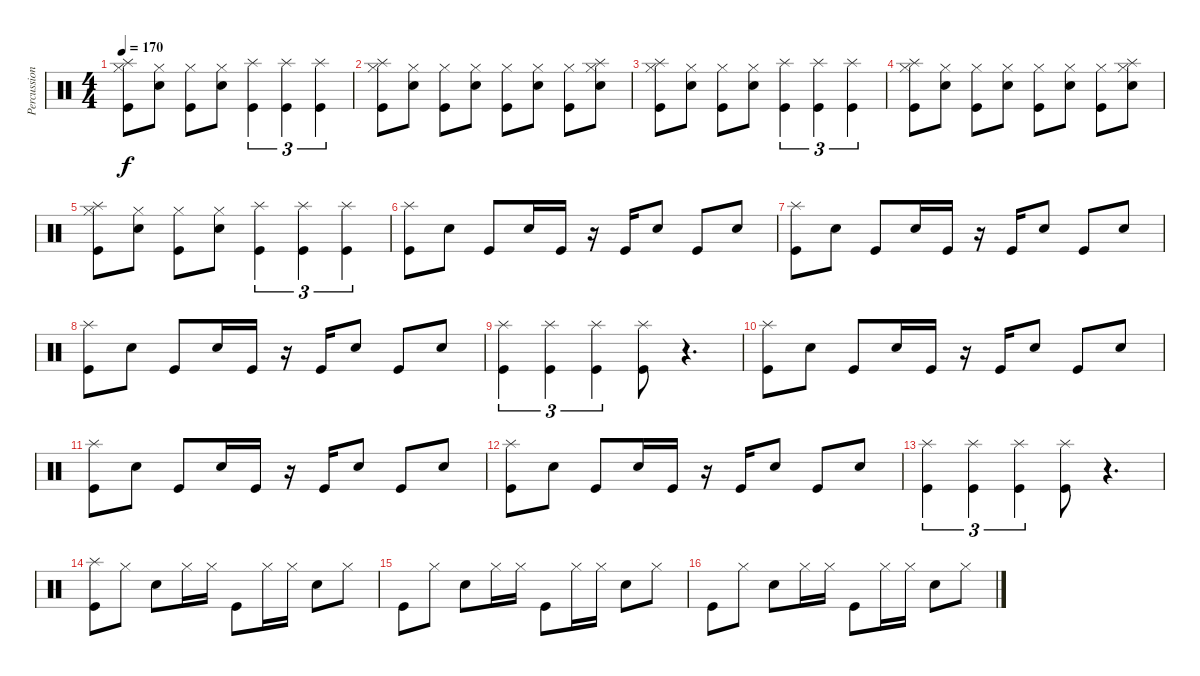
\track ("Percussion" "Percussion") {instrument percussion}
\staff {score}
\articulation defaults
\ts (4 4)
\tempo 170
\clef neutral
\ks c
("Splash (hit)" "Hi-Hat (closed)" "Kick (hit)").8{dy f} ("Hi-Hat (closed)" "Electric Snare (hit)").8 ("Hi-Hat (closed)" "Kick (hit)").8 ("Hi-Hat (closed)" "Electric Snare (hit)").8 ("Splash (hit)" "Kick (hit)").4{tu (3 2)} ("Splash (hit)" "Kick (hit)").4{tu (3 2)} ("Splash (hit)" "Kick (hit)").4{tu (3 2)} |
("Splash (hit)" "Hi-Hat (closed)" "Kick (hit)").8 ("Hi-Hat (closed)" "Electric Snare (hit)").8 ("Hi-Hat (closed)" "Kick (hit)").8 ("Hi-Hat (closed)" "Electric Snare (hit)").8 ("Hi-Hat (closed)" "Kick (hit)").8 ("Hi-Hat (closed)" "Electric Snare (hit)").8 ("Hi-Hat (closed)" "Kick (hit)").8 ("Splash (hit)" "Hi-Hat (closed)" "Electric Snare (hit)").8 |
("Splash (hit)" "Hi-Hat (closed)" "Kick (hit)").8 ("Hi-Hat (closed)" "Electric Snare (hit)").8 ("Hi-Hat (closed)" "Kick (hit)").8 ("Hi-Hat (closed)" "Electric Snare (hit)").8 ("Splash (hit)" "Kick (hit)").4{tu (3 2)} ("Splash (hit)" "Kick (hit)").4{tu (3 2)} ("Splash (hit)" "Kick (hit)").4{tu (3 2)} |
("Splash (hit)" "Hi-Hat (closed)" "Kick (hit)").8 ("Hi-Hat (closed)" "Electric Snare (hit)").8 ("Hi-Hat (closed)" "Kick (hit)").8 ("Hi-Hat (closed)" "Electric Snare (hit)").8 ("Hi-Hat (closed)" "Kick (hit)").8 ("Hi-Hat (closed)" "Electric Snare (hit)").8 ("Hi-Hat (closed)" "Kick (hit)").8 ("Splash (hit)" "Hi-Hat (closed)" "Electric Snare (hit)").8 |
("Splash (hit)" "Hi-Hat (closed)" "Kick (hit)").8 ("Hi-Hat (closed)" "Electric Snare (hit)").8 ("Hi-Hat (closed)" "Kick (hit)").8 ("Hi-Hat (closed)" "Electric Snare (hit)").8 ("Splash (hit)" "Kick (hit)").4{tu (3 2)} ("Splash (hit)" "Kick (hit)").4{tu (3 2)} ("Splash (hit)" "Kick (hit)").4{tu (3 2)} |
("Splash (hit)" "Kick (hit)").8 "Electric Snare (hit)".8 "Kick (hit)".8 "Electric Snare (hit)".16 "Kick (hit)".16 r.16 "Kick (hit)".16 "Electric Snare (hit)".8 "Kick (hit)".8 "Electric Snare (hit)".8 |
("Splash (hit)" "Kick (hit)").8 "Electric Snare (hit)".8 "Kick (hit)".8 "Electric Snare (hit)".16 "Kick (hit)".16 r.16 "Kick (hit)".16 "Electric Snare (hit)".8 "Kick (hit)".8 "Electric Snare (hit)".8 |
("Splash (hit)" "Kick (hit)").8 "Electric Snare (hit)".8 "Kick (hit)".8 "Electric Snare (hit)".16 "Kick (hit)".16 r.16 "Kick (hit)".16 "Electric Snare (hit)".8 "Kick (hit)".8 "Electric Snare (hit)".8 |
("Splash (hit)" "Kick (hit)").4{tu (3 2)} ("Splash (hit)" "Kick (hit)").4{tu (3 2)} ("Splash (hit)" "Kick (hit)").4{tu (3 2)} ("Splash (hit)" "Kick (hit)").8 r.4{d} |
("Splash (hit)" "Kick (hit)").8 "Electric Snare (hit)".8 "Kick (hit)".8 "Electric Snare (hit)".16 "Kick (hit)".16 r.16 "Kick (hit)".16 "Electric Snare (hit)".8 "Kick (hit)".8 "Electric Snare (hit)".8 |
("Splash (hit)" "Kick (hit)").8 "Electric Snare (hit)".8 "Kick (hit)".8 "Electric Snare (hit)".16 "Kick (hit)".16 r.16 "Kick (hit)".16 "Electric Snare (hit)".8 "Kick (hit)".8 "Electric Snare (hit)".8 |
("Splash (hit)" "Kick (hit)").8 "Electric Snare (hit)".8 "Kick (hit)".8 "Electric Snare (hit)".16 "Kick (hit)".16 r.16 "Kick (hit)".16 "Electric Snare (hit)".8 "Kick (hit)".8 "Electric Snare (hit)".8 |
("Splash (hit)" "Kick (hit)").4{tu (3 2)} ("Splash (hit)" "Kick (hit)").4{tu (3 2)} ("Splash (hit)" "Kick (hit)").4{tu (3 2)} ("Splash (hit)" "Kick (hit)").8 r.4{d} |
("Splash (hit)" "Kick (hit)").8 "Hi-Hat (closed)".8 "Electric Snare (hit)".8 "Hi-Hat (closed)".16 "Hi-Hat (closed)".16 "Kick (hit)".8 "Hi-Hat (closed)".16 "Hi-Hat (closed)".16 "Electric Snare (hit)".8 "Hi-Hat (closed)".8 |
"Kick (hit)".8 "Hi-Hat (closed)".8 "Electric Snare (hit)".8 "Hi-Hat (closed)".16 "Hi-Hat (closed)".16 "Kick (hit)".8 "Hi-Hat (closed)".16 "Hi-Hat (closed)".16 "Electric Snare (hit)".8 "Hi-Hat (closed)".8 |
"Kick (hit)".8 "Hi-Hat (closed)".8 "Electric Snare (hit)".8 "Hi-Hat (closed)".16 "Hi-Hat (closed)".16 "Kick (hit)".8 "Hi-Hat (closed)".16 "Hi-Hat (closed)".16 "Electric Snare (hit)".8 "Hi-Hat (closed)".8
